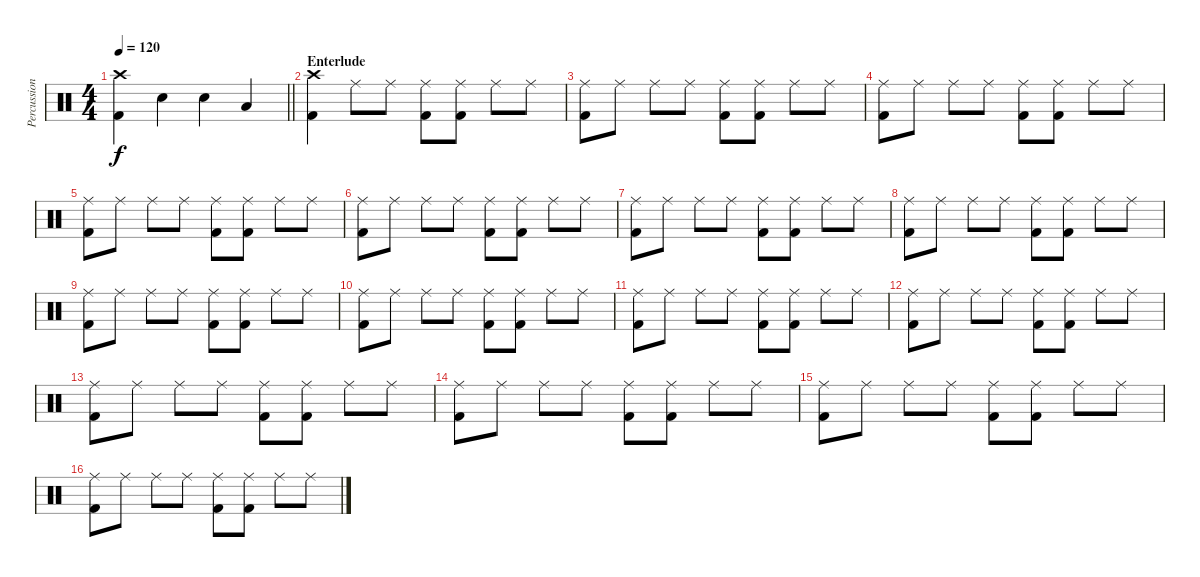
\track ("Percussion" "Percussion") {instrument percussion}
\staff {score}
\articulation defaults
\ts (4 4)
\tempo 120
\clef neutral
\barLineRight lightlight
\ks c
("Crash high (hit)" "Kick (hit) 2").4{dy f} "Electric Snare (hit)".4 "Electric Snare (hit)".4 "Low Tom (hit)".4 |
\section ("" "Enterlude")
("Crash high (hit)" "Kick (hit) 2").4 "Ride (middle)".8 "Ride (middle)".8 ("Ride (middle)" "Kick (hit) 2").8 ("Ride (middle)" "Kick (hit) 2").8 "Ride (middle)".8 "Ride (middle)".8 |
("Ride (middle)" "Kick (hit) 2").8 "Ride (middle)".8 "Ride (middle)".8 "Ride (middle)".8 ("Ride (middle)" "Kick (hit) 2").8 ("Ride (middle)" "Kick (hit) 2").8 "Ride (middle)".8 "Ride (middle)".8 |
("Ride (middle)" "Kick (hit) 2").8 "Ride (middle)".8 "Ride (middle)".8 "Ride (middle)".8 ("Ride (middle)" "Kick (hit) 2").8 ("Ride (middle)" "Kick (hit) 2").8 "Ride (middle)".8 "Ride (middle)".8 |
("Ride (middle)" "Kick (hit) 2").8 "Ride (middle)".8 "Ride (middle)".8 "Ride (middle)".8 ("Ride (middle)" "Kick (hit) 2").8 ("Ride (middle)" "Kick (hit) 2").8 "Ride (middle)".8 "Ride (middle)".8 |
("Ride (middle)" "Kick (hit) 2").8 "Ride (middle)".8 "Ride (middle)".8 "Ride (middle)".8 ("Ride (middle)" "Kick (hit) 2").8 ("Ride (middle)" "Kick (hit) 2").8 "Ride (middle)".8 "Ride (middle)".8 |
("Ride (middle)" "Kick (hit) 2").8 "Ride (middle)".8 "Ride (middle)".8 "Ride (middle)".8 ("Ride (middle)" "Kick (hit) 2").8 ("Ride (middle)" "Kick (hit) 2").8 "Ride (middle)".8 "Ride (middle)".8 |
("Ride (middle)" "Kick (hit) 2").8 "Ride (middle)".8 "Ride (middle)".8 "Ride (middle)".8 ("Ride (middle)" "Kick (hit) 2").8 ("Ride (middle)" "Kick (hit) 2").8 "Ride (middle)".8 "Ride (middle)".8 |
("Ride (middle)" "Kick (hit) 2").8 "Ride (middle)".8 "Ride (middle)".8 "Ride (middle)".8 ("Ride (middle)" "Kick (hit) 2").8 ("Ride (middle)" "Kick (hit) 2").8 "Ride (middle)".8 "Ride (middle)".8 |
("Ride (middle)" "Kick (hit) 2").8 "Ride (middle)".8 "Ride (middle)".8 "Ride (middle)".8 ("Ride (middle)" "Kick (hit) 2").8 ("Ride (middle)" "Kick (hit) 2").8 "Ride (middle)".8 "Ride (middle)".8 |
("Ride (middle)" "Kick (hit) 2").8 "Ride (middle)".8 "Ride (middle)".8 "Ride (middle)".8 ("Ride (middle)" "Kick (hit) 2").8 ("Ride (middle)" "Kick (hit) 2").8 "Ride (middle)".8 "Ride (middle)".8 |
("Ride (middle)" "Kick (hit) 2").8 "Ride (middle)".8 "Ride (middle)".8 "Ride (middle)".8 ("Ride (middle)" "Kick (hit) 2").8 ("Ride (middle)" "Kick (hit) 2").8 "Ride (middle)".8 "Ride (middle)".8 |
("Ride (middle)" "Kick (hit) 2").8 "Ride (middle)".8 "Ride (middle)".8 "Ride (middle)".8 ("Ride (middle)" "Kick (hit) 2").8 ("Ride (middle)" "Kick (hit) 2").8 "Ride (middle)".8 "Ride (middle)".8 |
("Ride (middle)" "Kick (hit) 2").8 "Ride (middle)".8 "Ride (middle)".8 "Ride (middle)".8 ("Ride (middle)" "Kick (hit) 2").8 ("Ride (middle)" "Kick (hit) 2").8 "Ride (middle)".8 "Ride (middle)".8 |
("Ride (middle)" "Kick (hit) 2").8 "Ride (middle)".8 "Ride (middle)".8 "Ride (middle)".8 ("Ride (middle)" "Kick (hit) 2").8 ("Ride (middle)" "Kick (hit) 2").8 "Ride (middle)".8 "Ride (middle)".8 |
("Ride (middle)" "Kick (hit) 2").8 "Ride (middle)".8 "Ride (middle)".8 "Ride (middle)".8 ("Ride (middle)" "Kick (hit) 2").8 ("Ride (middle)" "Kick (hit) 2").8 "Ride (middle)".8 "Ride (middle)".8
